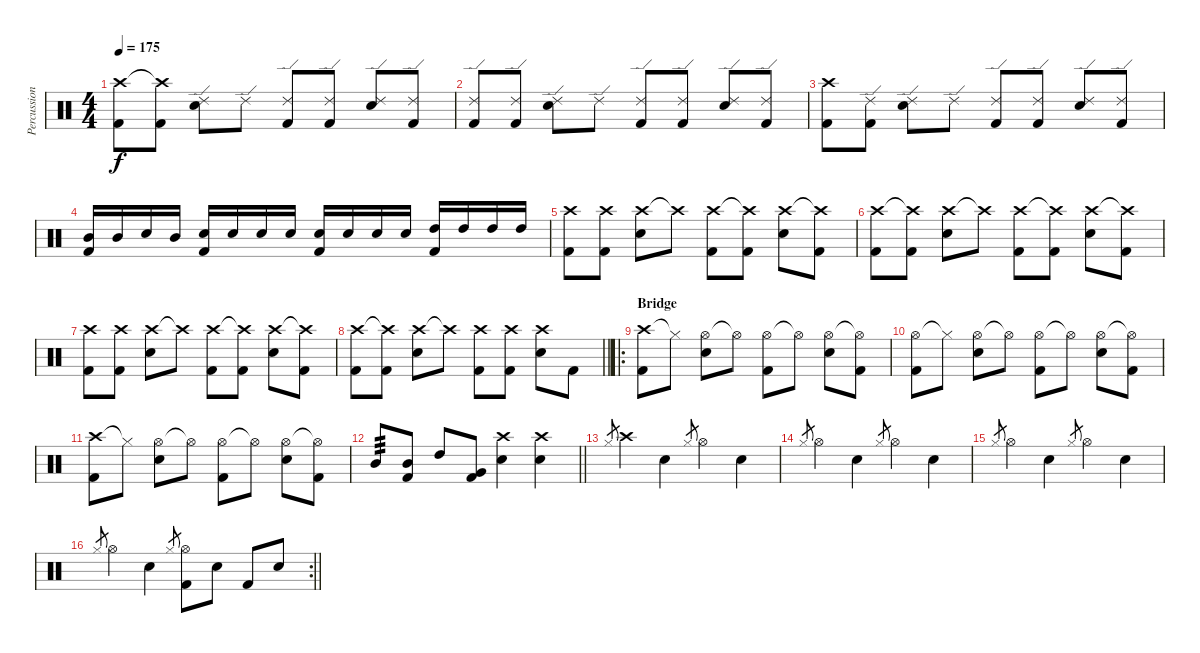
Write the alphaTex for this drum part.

\track ("Percussion" "Percussion") {instrument percussion}
\staff {score}
\articulation defaults
\ts (4 4)
\tempo 175
\clef neutral
\ks c
("Crash high (hit)" "Kick (hit) 2").8{dy f} ("Crash high (hit)"{t} "Kick (hit) 2").8 ("Ride (edge) 2" "Snare (hit) 2").8 "Ride (edge) 2".8 ("Ride (edge) 2" "Kick (hit) 2").8 ("Ride (edge) 2" "Kick (hit) 2").8 ("Ride (edge) 2" "Snare (hit) 2").8 ("Ride (edge) 2" "Kick (hit) 2").8 |
("Ride (edge) 2" "Kick (hit) 2").8 ("Ride (edge) 2" "Kick (hit) 2").8 ("Ride (edge) 2" "Snare (hit) 2").8 "Ride (edge) 2".8 ("Ride (edge) 2" "Kick (hit) 2").8 ("Ride (edge) 2" "Kick (hit) 2").8 ("Ride (edge) 2" "Snare (hit) 2").8 ("Ride (edge) 2" "Kick (hit) 2").8 |
("Crash high (hit)" "Kick (hit) 2").8 ("Ride (edge) 2" "Kick (hit) 2").8 ("Ride (edge) 2" "Snare (hit) 2").8 "Ride (edge) 2".8 ("Ride (edge) 2" "Kick (hit) 2").8 ("Ride (edge) 2" "Kick (hit) 2").8 ("Ride (edge) 2" "Snare (hit) 2").8 ("Ride (edge) 2" "Kick (hit) 2").8 |
("Mid Tom (hit)" "Kick (hit) 2").16 "Mid Tom (hit)".16 "Snare (hit) 2".16 "Mid Tom (hit)".16 ("Snare (hit) 2" "Kick (hit) 2").16 "Snare (hit) 2".16 "Snare (hit) 2".16 "Snare (hit) 2".16 ("Snare (hit) 2" "Kick (hit) 2").16 "Snare (hit) 2".16 "Snare (hit) 2".16 "Snare (hit) 2".16 ("High Tom (hit)" "Kick (hit) 2").16 "High Tom (hit)".16 "High Tom (hit)".16 "High Tom (hit)".16 |
("Crash high (hit)" "Kick (hit) 2").8 ("Crash high (hit)" "Kick (hit) 2").8 ("Crash high (hit)" "Snare (hit) 2").8 "Crash high (hit)"{t}.8 ("Crash high (hit)" "Kick (hit) 2").8 ("Crash high (hit)"{t} "Kick (hit) 2").8 ("Crash high (hit)" "Snare (hit) 2").8 ("Crash high (hit)"{t} "Kick (hit) 2").8 |
("Crash high (hit)" "Kick (hit) 2").8 ("Crash high (hit)"{t} "Kick (hit) 2").8 ("Crash high (hit)" "Snare (hit) 2").8 "Crash high (hit)"{t}.8 ("Crash high (hit)" "Kick (hit) 2").8 ("Crash high (hit)"{t} "Kick (hit) 2").8 ("Crash high (hit)" "Snare (hit) 2").8 ("Crash high (hit)"{t} "Kick (hit) 2").8 |
("Crash high (hit)" "Kick (hit) 2").8 ("Crash high (hit)" "Kick (hit) 2").8 ("Crash high (hit)" "Snare (hit) 2").8 "Crash high (hit)"{t}.8 ("Crash high (hit)" "Kick (hit) 2").8 ("Crash high (hit)"{t} "Kick (hit) 2").8 ("Crash high (hit)" "Snare (hit) 2").8 ("Crash high (hit)"{t} "Kick (hit) 2").8 |
\barLineRight lightlight
("Crash high (hit)" "Kick (hit) 2").8 ("Crash high (hit)"{t} "Kick (hit) 2").8 ("Crash high (hit)" "Snare (hit) 2").8 "Crash high (hit)"{t}.8 ("Crash high (hit)" "Kick (hit) 2").8 ("Crash high (hit)" "Kick (hit) 2").8 ("Crash high (hit)" "Snare (hit) 2").8 "Kick (hit) 2".8 |
\ro
\section ("" "Bridge")
("Crash high (hit)" "Kick (hit) 2").8 "Hi-Hat (closed)"{t}.8 ("Hi-Hat (open)" "Snare (hit) 2").8 "Hi-Hat (open)"{t}.8 ("Hi-Hat (open)" "Kick (hit) 2").8 "Hi-Hat (open)"{t}.8 ("Hi-Hat (open)" "Snare (hit) 2").8 ("Hi-Hat (open)"{t} "Kick (hit) 2").8 |
("Hi-Hat (open)" "Kick (hit) 2").8 "Hi-Hat (closed)"{t}.8 ("Hi-Hat (open)" "Snare (hit) 2").8 "Hi-Hat (open)"{t}.8 ("Hi-Hat (open)" "Kick (hit) 2").8 "Hi-Hat (open)"{t}.8 ("Hi-Hat (open)" "Snare (hit) 2").8 ("Hi-Hat (open)"{t} "Kick (hit) 2").8 |
("Crash high (hit)" "Kick (hit) 2").8 "Hi-Hat (closed)"{t}.8 ("Hi-Hat (open)" "Snare (hit) 2").8 "Hi-Hat (open)"{t}.8 ("Hi-Hat (open)" "Kick (hit) 2").8 "Hi-Hat (open)"{t}.8 ("Hi-Hat (open)" "Snare (hit) 2").8 ("Hi-Hat (open)"{t} "Kick (hit) 2").8 |
\barLineRight lightlight "Mid Tom (hit)".8{tp 3}
("Mid Tom (hit)" "Kick (hit) 2").8 "High Tom (hit)".8 ("Very Low Tom (hit)" "Kick (hit) 2").8 ("Crash high (hit)" "Snare (hit) 2").4 ("Crash high (hit)" "Snare (hit) 2").4 |
"Hi-Hat (closed)".8{gr} "Crash high (hit)".4 "Snare (hit) 2".4 "Hi-Hat (closed)".8{gr} "Hi-Hat (open)".4 "Snare (hit) 2".4 |
"Hi-Hat (closed)".8{gr} "Hi-Hat (open)".4 "Snare (hit) 2".4 "Hi-Hat (closed)".8{gr} "Hi-Hat (open)".4 "Snare (hit) 2".4 |
"Hi-Hat (closed)".8{gr} "Hi-Hat (open)".4 "Snare (hit) 2".4 "Hi-Hat (closed)".8{gr} "Hi-Hat (open)".4 "Snare (hit) 2".4 |
\rc 2
\barLineRight lightlight "Hi-Hat (closed)".8{gr} "Hi-Hat (open)".4 "Snare (hit) 2".4 "Hi-Hat (closed)".8{gr}
("Hi-Hat (open)" "Kick (hit) 2").8 "Snare (hit) 2".8 "Kick (hit) 2".8 "Snare (hit) 2".8
